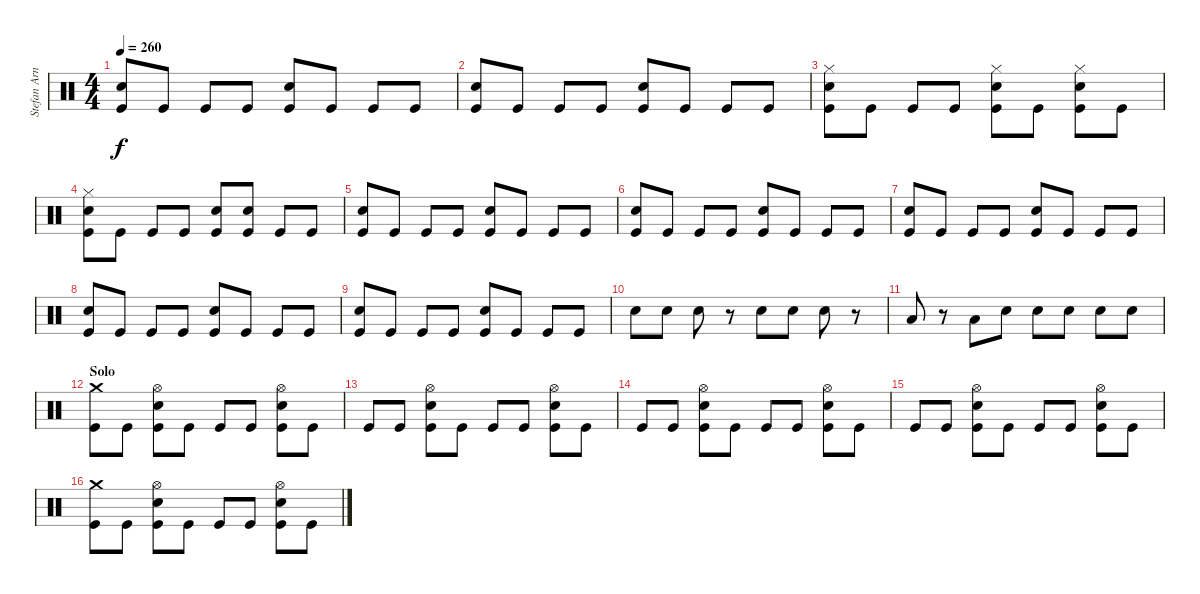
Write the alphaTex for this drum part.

\track ("Stefan Arnold" "Stefan Arn") {instrument percussion}
\staff {score}
\articulation defaults
\ts (4 4)
\tempo 260
\clef neutral
\ks c
("Electric Snare (hit)" "Kick (hit)").8{dy f} "Kick (hit)".8 "Kick (hit)".8 "Kick (hit)".8 ("Electric Snare (hit)" "Kick (hit)").8 "Kick (hit)".8 "Kick (hit)".8 "Kick (hit)".8 |
("Electric Snare (hit)" "Kick (hit)").8 "Kick (hit)".8 "Kick (hit)".8 "Kick (hit)".8 ("Electric Snare (hit)" "Kick (hit)").8 "Kick (hit)".8 "Kick (hit)".8 "Kick (hit)".8 |
("Electric Snare (hit)" "Hi-Hat (closed)" "Kick (hit)").8 "Kick (hit)".8 "Kick (hit)".8 "Kick (hit)".8 ("Electric Snare (hit)" "Hi-Hat (closed)" "Kick (hit)").8 "Kick (hit)".8 ("Electric Snare (hit)" "Hi-Hat (closed)" "Kick (hit)").8 "Kick (hit)".8 |
("Electric Snare (hit)" "Hi-Hat (closed)" "Kick (hit)").8 "Kick (hit)".8 "Kick (hit)".8 "Kick (hit)".8 ("Electric Snare (hit)" "Kick (hit)").8 ("Electric Snare (hit)" "Kick (hit)").8 "Kick (hit)".8 "Kick (hit)".8 |
("Electric Snare (hit)" "Kick (hit)").8 "Kick (hit)".8 "Kick (hit)".8 "Kick (hit)".8 ("Electric Snare (hit)" "Kick (hit)").8 "Kick (hit)".8 "Kick (hit)".8 "Kick (hit)".8 |
("Electric Snare (hit)" "Kick (hit)").8 "Kick (hit)".8 "Kick (hit)".8 "Kick (hit)".8 ("Electric Snare (hit)" "Kick (hit)").8 "Kick (hit)".8 "Kick (hit)".8 "Kick (hit)".8 |
("Electric Snare (hit)" "Kick (hit)").8 "Kick (hit)".8 "Kick (hit)".8 "Kick (hit)".8 ("Electric Snare (hit)" "Kick (hit)").8 "Kick (hit)".8 "Kick (hit)".8 "Kick (hit)".8 |
("Electric Snare (hit)" "Kick (hit)").8 "Kick (hit)".8 "Kick (hit)".8 "Kick (hit)".8 ("Electric Snare (hit)" "Kick (hit)").8 "Kick (hit)".8 "Kick (hit)".8 "Kick (hit)".8 |
("Electric Snare (hit)" "Kick (hit)").8 "Kick (hit)".8 "Kick (hit)".8 "Kick (hit)".8 ("Electric Snare (hit)" "Kick (hit)").8 "Kick (hit)".8 "Kick (hit)".8 "Kick (hit)".8 |
"Electric Snare (hit)".8 "Electric Snare (hit)".8 "Electric Snare (hit)".8 r.8 "Electric Snare (hit)".8 "Electric Snare (hit)".8 "Electric Snare (hit)".8 r.8 |
"Low Tom (hit)".8 r.8 "Low Tom (hit)".8 "Electric Snare (hit)".8 "Electric Snare (hit)".8 "Electric Snare (hit)".8 "Electric Snare (hit)".8 "Electric Snare (hit)".8 |
\section ("" "Solo")
("Crash medium (hit)" "Kick (hit)").8 "Kick (hit)".8 ("Hi-Hat (open)" "Electric Snare (hit)" "Kick (hit)").8 "Kick (hit)".8 "Kick (hit)".8 "Kick (hit)".8 ("Hi-Hat (open)" "Electric Snare (hit)" "Kick (hit)").8 "Kick (hit)".8 |
"Kick (hit)".8 "Kick (hit)".8 ("Hi-Hat (open)" "Electric Snare (hit)" "Kick (hit)").8 "Kick (hit)".8 "Kick (hit)".8 "Kick (hit)".8 ("Hi-Hat (open)" "Electric Snare (hit)" "Kick (hit)").8 "Kick (hit)".8 |
"Kick (hit)".8 "Kick (hit)".8 ("Hi-Hat (open)" "Electric Snare (hit)" "Kick (hit)").8 "Kick (hit)".8 "Kick (hit)".8 "Kick (hit)".8 ("Hi-Hat (open)" "Electric Snare (hit)" "Kick (hit)").8 "Kick (hit)".8 |
"Kick (hit)".8 "Kick (hit)".8 ("Hi-Hat (open)" "Electric Snare (hit)" "Kick (hit)").8 "Kick (hit)".8 "Kick (hit)".8 "Kick (hit)".8 ("Hi-Hat (open)" "Electric Snare (hit)" "Kick (hit)").8 "Kick (hit)".8 |
("Crash medium (hit)" "Kick (hit)").8 "Kick (hit)".8 ("Hi-Hat (open)" "Electric Snare (hit)" "Kick (hit)").8 "Kick (hit)".8 "Kick (hit)".8 "Kick (hit)".8 ("Hi-Hat (open)" "Electric Snare (hit)" "Kick (hit)").8 "Kick (hit)".8
